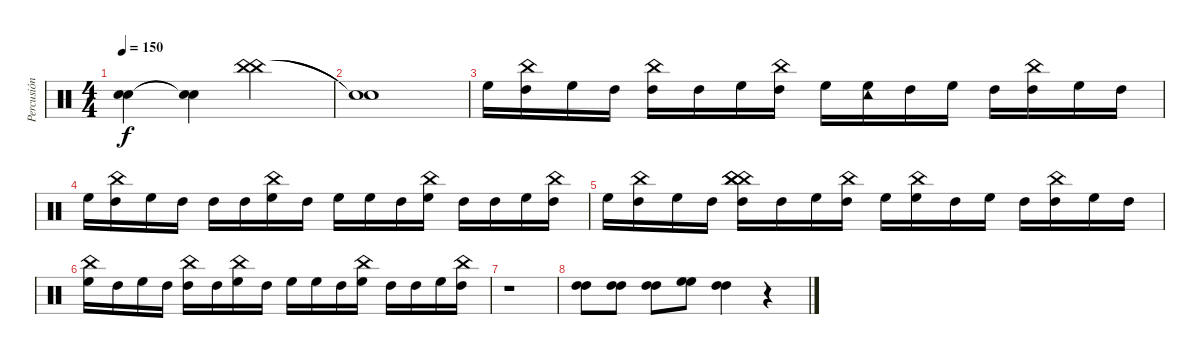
\track ("Percusión" "Percusión") {instrument percussion}
\staff {score}
\articulation defaults
\ts (4 4)
\tempo 150
\clef neutral
\ks c
("Snare (hit)"{t} "Snare (hit)"{t}).4{dy f} ("Snare (hit)"{t} "Snare (hit)"{t}).4 ("China (hit)" "China (hit)").2 |
("Snare (hit)"{t} "Snare (hit)"{t}).1 |
"High Floor Tom (hit)".16 ("High Tom (hit)" "China (hit)").16 "High Floor Tom (hit)".16 "High Tom (hit)".16 ("High Tom (hit)" "China (hit)").16 "High Tom (hit)".16 "High Floor Tom (hit)".16 ("High Tom (hit)" "China (hit)").16 "High Floor Tom (hit)".16 ("High Floor Tom (hit)" "Tambourine (hit)").16 "High Tom (hit)".16 "High Floor Tom (hit)".16 "High Tom (hit)".16 ("High Tom (hit)" "China (hit)").16 "High Floor Tom (hit)".16 "High Tom (hit)".16 |
"High Floor Tom (hit)".16 ("High Tom (hit)" "China (hit)").16 "High Floor Tom (hit)".16 "High Tom (hit)".16 "High Tom (hit)".16 "High Tom (hit)".16 ("High Floor Tom (hit)" "China (hit)").16 "High Tom (hit)".16 "High Floor Tom (hit)".16 "High Floor Tom (hit)".16 "High Tom (hit)".16 ("High Floor Tom (hit)" "China (hit)").16 "High Tom (hit)".16 "High Tom (hit)".16 "High Floor Tom (hit)".16 ("High Tom (hit)" "China (hit)").16 |
"High Floor Tom (hit)".16 ("High Tom (hit)" "China (hit)").16 "High Floor Tom (hit)".16 "High Tom (hit)".16 ("High Tom (hit)" "China (hit)" "China (hit)" "China (hit)").16 "High Tom (hit)".16 "High Floor Tom (hit)".16 ("High Tom (hit)" "China (hit)").16 "High Floor Tom (hit)".16 ("High Floor Tom (hit)" "China (hit)").16 "High Tom (hit)".16 "High Floor Tom (hit)".16 "High Tom (hit)".16 ("High Tom (hit)" "China (hit)").16 "High Floor Tom (hit)".16 "High Tom (hit)".16 |
("High Floor Tom (hit)" "China (hit)").16 "High Tom (hit)".16 "High Floor Tom (hit)".16 "High Tom (hit)".16 ("High Tom (hit)" "China (hit)").16 "High Tom (hit)".16 ("High Floor Tom (hit)" "China (hit)").16 "High Tom (hit)".16 "High Floor Tom (hit)".16 "High Floor Tom (hit)".16 "High Tom (hit)".16 ("High Floor Tom (hit)" "China (hit)").16 "High Tom (hit)".16 "High Tom (hit)".16 "High Floor Tom (hit)".16 ("High Tom (hit)" "China (hit)").16 |
r.1 |
("High Tom (hit)" "High Tom (hit)").8 ("High Tom (hit)" "High Tom (hit)").8 ("High Tom (hit)" "High Tom (hit)").8 ("High Floor Tom (hit)" "High Floor Tom (hit)").8 ("High Tom (hit)" "High Tom (hit)").4 r.4
